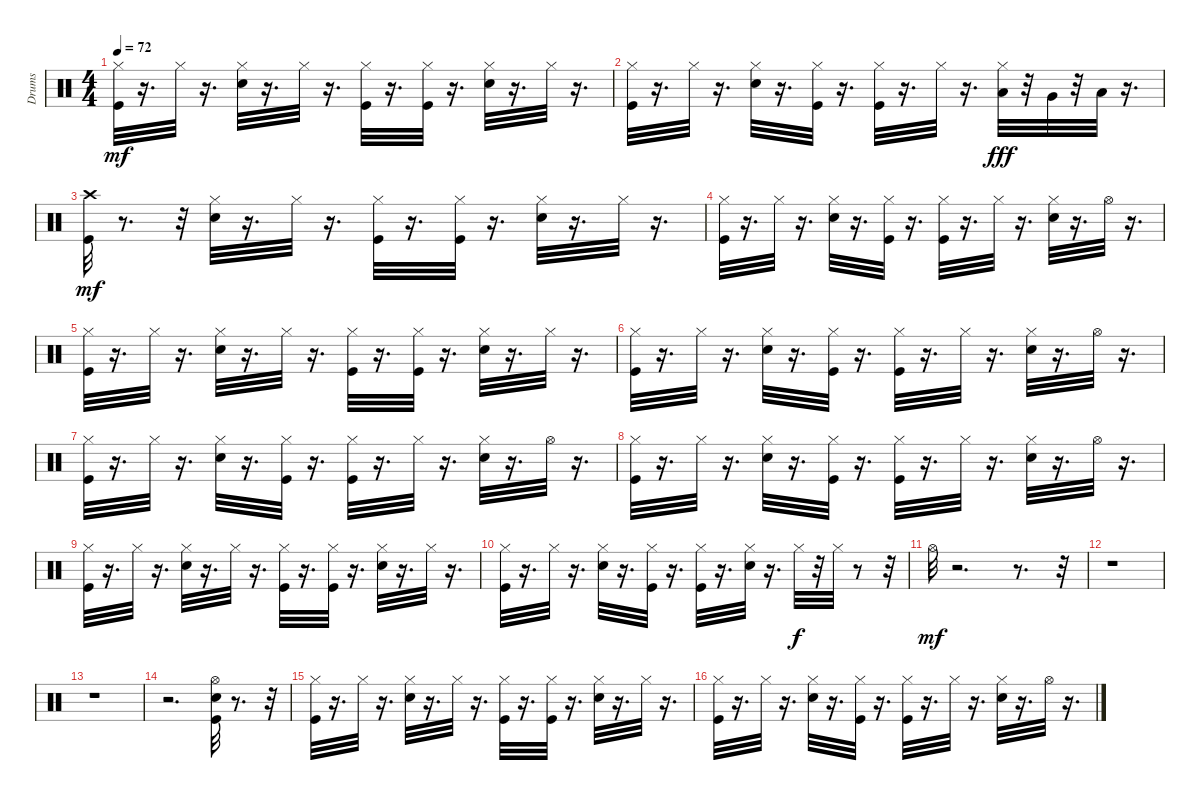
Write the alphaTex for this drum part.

\track ("Drums" "Drums") {instrument percussion}
\staff {score}
\articulation defaults
\ts (4 4)
\tempo 72
\clef neutral
\ks c
("Hi-Hat (closed)" "Kick (hit)").32{dy mf} r.16{d} "Hi-Hat (closed)".32 r.16{d} ("Hi-Hat (closed)" "Snare (hit) 2").32 r.16{d} "Hi-Hat (closed)".32 r.16{d} ("Hi-Hat (closed)" "Kick (hit)").32 r.16{d} ("Hi-Hat (closed)" "Kick (hit)").32 r.16{d} ("Hi-Hat (closed)" "Snare (hit) 2").32 r.16{d} "Hi-Hat (closed)".32 r.16{d} |
("Hi-Hat (closed)" "Kick (hit)").32 r.16{d} "Hi-Hat (closed)".32 r.16{d} ("Snare (hit) 2" "Hi-Hat (closed)").32 r.16{d} ("Hi-Hat (closed)" "Kick (hit)").32 r.16{d} ("Hi-Hat (closed)" "Kick (hit)").32 r.16{d} "Hi-Hat (closed)".32 r.16{d} ("Hi-Hat (closed)" "Low Tom (hit)").32{dy fff} r.32 "Very Low Tom (hit)".32 r.32 "Low Floor Tom (hit)".32 r.16{d} |
("Crash high (hit)" "Kick (hit)").32{dy mf} r.8{d} r.32 ("Hi-Hat (closed)" "Snare (hit) 2").32 r.16{d} "Hi-Hat (closed)".32 r.16{d} ("Hi-Hat (closed)" "Kick (hit)").32 r.16{d} ("Hi-Hat (closed)" "Kick (hit)").32 r.16{d} ("Hi-Hat (closed)" "Snare (hit) 2").32 r.16{d} "Hi-Hat (closed)".32 r.16{d} |
("Hi-Hat (closed)" "Kick (hit)").32 r.16{d} "Hi-Hat (closed)".32 r.16{d} ("Snare (hit) 2" "Hi-Hat (closed)").32 r.16{d} ("Hi-Hat (closed)" "Kick (hit)").32 r.16{d} ("Hi-Hat (closed)" "Kick (hit)").32 r.16{d} "Hi-Hat (closed)".32 r.16{d} ("Hi-Hat (closed)" "Snare (hit) 2").32 r.16{d} "Hi-Hat (open)".32 r.16{d} |
("Hi-Hat (closed)" "Kick (hit)").32 r.16{d} "Hi-Hat (closed)".32 r.16{d} ("Hi-Hat (closed)" "Snare (hit) 2").32 r.16{d} "Hi-Hat (closed)".32 r.16{d} ("Hi-Hat (closed)" "Kick (hit)").32 r.16{d} ("Hi-Hat (closed)" "Kick (hit)").32 r.16{d} ("Hi-Hat (closed)" "Snare (hit) 2").32 r.16{d} "Hi-Hat (closed)".32 r.16{d} |
("Hi-Hat (closed)" "Kick (hit)").32 r.16{d} "Hi-Hat (closed)".32 r.16{d} ("Snare (hit) 2" "Hi-Hat (closed)").32 r.16{d} ("Hi-Hat (closed)" "Kick (hit)").32 r.16{d} ("Hi-Hat (closed)" "Kick (hit)").32 r.16{d} "Hi-Hat (closed)".32 r.16{d} ("Hi-Hat (closed)" "Snare (hit) 2").32 r.16{d} "Hi-Hat (open)".32 r.16{d} |
("Hi-Hat (closed)" "Kick (hit)").32 r.16{d} "Hi-Hat (closed)".32 r.16{d} ("Snare (hit) 2" "Hi-Hat (closed)").32 r.16{d} ("Hi-Hat (closed)" "Kick (hit)").32 r.16{d} ("Hi-Hat (closed)" "Kick (hit)").32 r.16{d} "Hi-Hat (closed)".32 r.16{d} ("Hi-Hat (closed)" "Snare (hit) 2").32 r.16{d} "Hi-Hat (open)".32 r.16{d} |
("Hi-Hat (closed)" "Kick (hit)").32 r.16{d} "Hi-Hat (closed)".32 r.16{d} ("Snare (hit) 2" "Hi-Hat (closed)").32 r.16{d} ("Hi-Hat (closed)" "Kick (hit)").32 r.16{d} ("Hi-Hat (closed)" "Kick (hit)").32 r.16{d} "Hi-Hat (closed)".32 r.16{d} ("Hi-Hat (closed)" "Snare (hit) 2").32 r.16{d} "Hi-Hat (open)".32 r.16{d} |
("Hi-Hat (closed)" "Kick (hit)").32 r.16{d} "Hi-Hat (closed)".32 r.16{d} ("Hi-Hat (closed)" "Snare (hit) 2").32 r.16{d} "Hi-Hat (closed)".32 r.16{d} ("Hi-Hat (closed)" "Kick (hit)").32 r.16{d} ("Hi-Hat (closed)" "Kick (hit)").32 r.16{d} ("Hi-Hat (closed)" "Snare (hit) 2").32 r.16{d} "Hi-Hat (closed)".32 r.16{d} |
("Hi-Hat (closed)" "Kick (hit)").32 r.16{d} "Hi-Hat (closed)".32 r.16{d} ("Snare (hit) 2" "Hi-Hat (closed)").32 r.16{d} ("Hi-Hat (closed)" "Kick (hit)").32 r.16{d} ("Hi-Hat (closed)" "Kick (hit)").32 r.16{d} ("Snare (hit) 2" "Hi-Hat (closed)").32 r.16{d} "Hi-Hat (closed)".32{dy f} r.32 "Hi-Hat (closed)".32 r.8 r.32 |
"Hi-Hat (open)".32{dy mf} r.2{d} r.8{d} r.32 |
r.1 |
r.1 |
r.2{d} ("Hi-Hat (open)" "Snare (hit) 2" "Kick (hit)").32 r.8{d} r.32 |
("Hi-Hat (closed)" "Kick (hit)").32 r.16{d} "Hi-Hat (closed)".32 r.16{d} ("Hi-Hat (closed)" "Snare (hit) 2").32 r.16{d} "Hi-Hat (closed)".32 r.16{d} ("Hi-Hat (closed)" "Kick (hit)").32 r.16{d} ("Hi-Hat (closed)" "Kick (hit)").32 r.16{d} ("Hi-Hat (closed)" "Snare (hit) 2").32 r.16{d} "Hi-Hat (closed)".32 r.16{d} |
("Hi-Hat (closed)" "Kick (hit)").32 r.16{d} "Hi-Hat (closed)".32 r.16{d} ("Snare (hit) 2" "Hi-Hat (closed)").32 r.16{d} ("Hi-Hat (closed)" "Kick (hit)").32 r.16{d} ("Hi-Hat (closed)" "Kick (hit)").32 r.16{d} "Hi-Hat (closed)".32 r.16{d} ("Hi-Hat (closed)" "Snare (hit) 2").32 r.16{d} "Hi-Hat (open)".32 r.16{d}
